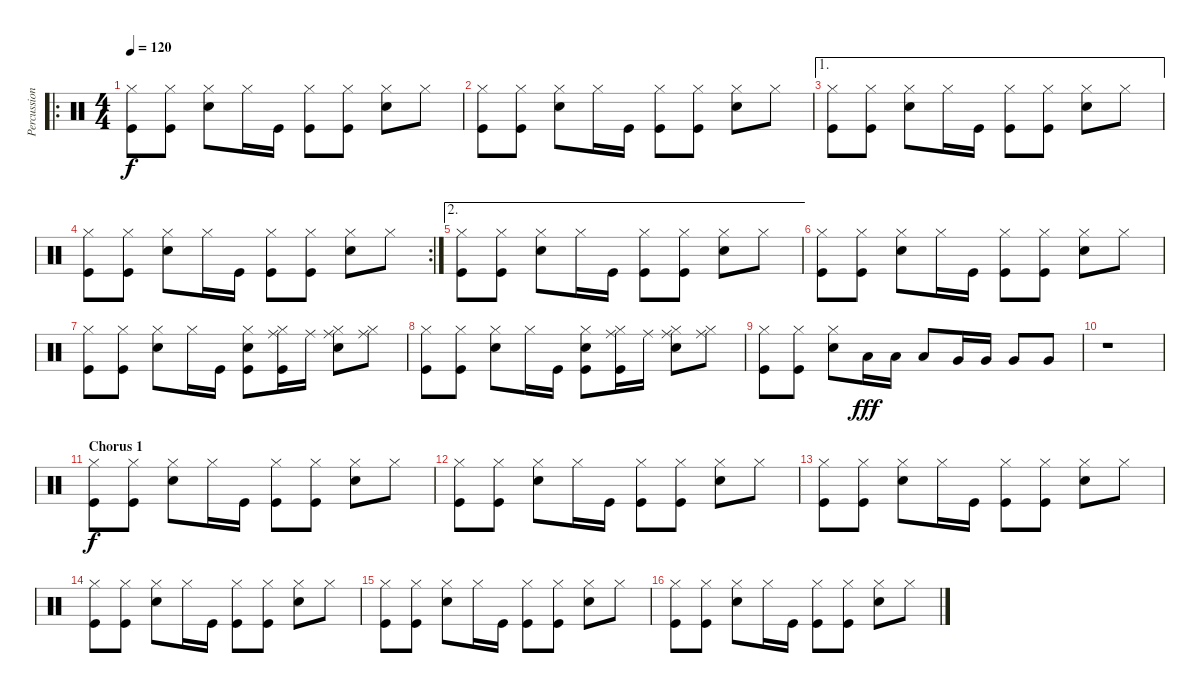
\track ("Percussion" "Percussion") {instrument percussion}
\staff {score}
\articulation defaults
\ro
\ts (4 4)
\tempo 120
\clef neutral
\ks c
("Hi-Hat (closed)" "Kick (hit)").8{dy f} ("Hi-Hat (closed)" "Kick (hit)").8 ("Hi-Hat (closed)" "Snare (hit) 2").8 "Hi-Hat (closed)".16 "Kick (hit)".16 ("Hi-Hat (closed)" "Kick (hit)").8 ("Hi-Hat (closed)" "Kick (hit)").8 ("Hi-Hat (closed)" "Snare (hit) 2").8 "Hi-Hat (closed)".8 |
("Hi-Hat (closed)" "Kick (hit)").8 ("Hi-Hat (closed)" "Kick (hit)").8 ("Hi-Hat (closed)" "Snare (hit) 2").8 "Hi-Hat (closed)".16 "Kick (hit)".16 ("Hi-Hat (closed)" "Kick (hit)").8 ("Hi-Hat (closed)" "Kick (hit)").8 ("Hi-Hat (closed)" "Snare (hit) 2").8 "Hi-Hat (closed)".8 |
\ae 1
("Hi-Hat (closed)" "Kick (hit)").8 ("Hi-Hat (closed)" "Kick (hit)").8 ("Hi-Hat (closed)" "Snare (hit) 2").8 "Hi-Hat (closed)".16 "Kick (hit)".16 ("Hi-Hat (closed)" "Kick (hit)").8 ("Hi-Hat (closed)" "Kick (hit)").8 ("Hi-Hat (closed)" "Snare (hit) 2").8 "Hi-Hat (closed)".8 |
\rc 2
("Hi-Hat (closed)" "Kick (hit)").8 ("Hi-Hat (closed)" "Kick (hit)").8 ("Hi-Hat (closed)" "Snare (hit) 2").8 "Hi-Hat (closed)".16 "Kick (hit)".16 ("Hi-Hat (closed)" "Kick (hit)").8 ("Hi-Hat (closed)" "Kick (hit)").8 ("Hi-Hat (closed)" "Snare (hit) 2").8 "Hi-Hat (closed)".8 |
\ae 2
("Hi-Hat (closed)" "Kick (hit)").8 ("Hi-Hat (closed)" "Kick (hit)").8 ("Hi-Hat (closed)" "Snare (hit) 2").8 "Hi-Hat (closed)".16 "Kick (hit)".16 ("Hi-Hat (closed)" "Kick (hit)").8 ("Hi-Hat (closed)" "Kick (hit)").8 ("Hi-Hat (closed)" "Snare (hit) 2").8 "Hi-Hat (closed)".8 |
("Hi-Hat (closed)" "Kick (hit)").8 ("Hi-Hat (closed)" "Kick (hit)").8 ("Hi-Hat (closed)" "Snare (hit) 2").8 "Hi-Hat (closed)".16 "Kick (hit)".16 ("Hi-Hat (closed)" "Kick (hit)").8 ("Hi-Hat (closed)" "Kick (hit)").8 ("Hi-Hat (closed)" "Snare (hit) 2").8 "Hi-Hat (closed)".8 |
("Hi-Hat (closed)" "Kick (hit)").8 ("Hi-Hat (closed)" "Kick (hit)").8 ("Hi-Hat (closed)" "Snare (hit) 2").8 "Hi-Hat (closed)".16 "Kick (hit)".16 ("Hi-Hat (closed)" "Hand Clap (hit)" "Kick (hit)").8 ("Hi-Hat (closed)" "Ride (middle)" "Kick (hit)").16 "Ride (middle)".16 ("Hi-Hat (closed)" "Ride (middle)" "Snare (hit) 2").8 ("Hi-Hat (closed)" "Ride (middle)").8 |
("Hi-Hat (closed)" "Kick (hit)").8 ("Hi-Hat (closed)" "Kick (hit)").8 ("Hi-Hat (closed)" "Snare (hit) 2").8 "Hi-Hat (closed)".16 "Kick (hit)".16 ("Hi-Hat (closed)" "Hand Clap (hit)" "Kick (hit)").8 ("Hi-Hat (closed)" "Ride (middle)" "Kick (hit)").16 "Ride (middle)".16 ("Hi-Hat (closed)" "Ride (middle)" "Snare (hit) 2").8 ("Hi-Hat (closed)" "Ride (middle)").8 |
("Hi-Hat (closed)" "Kick (hit)").8 ("Hi-Hat (closed)" "Kick (hit)").8 ("Hi-Hat (closed)" "Snare (hit) 2").8 "Low Tom (hit)".16{dy fff} "Low Tom (hit)".16 "Low Tom (hit)".8 "Very Low Tom (hit)".16 "Very Low Tom (hit)".16 "Very Low Tom (hit)".8 "Very Low Tom (hit)".8 |
r.1 |
\section ("" "Chorus 1")
("Hi-Hat (closed)" "Kick (hit)").8{dy f} ("Hi-Hat (closed)" "Kick (hit)").8 ("Hi-Hat (closed)" "Snare (hit) 2").8 "Hi-Hat (closed)".16 "Kick (hit)".16 ("Hi-Hat (closed)" "Kick (hit)").8 ("Hi-Hat (closed)" "Kick (hit)").8 ("Hi-Hat (closed)" "Snare (hit) 2").8 "Hi-Hat (closed)".8 |
("Hi-Hat (closed)" "Kick (hit)").8 ("Hi-Hat (closed)" "Kick (hit)").8 ("Hi-Hat (closed)" "Snare (hit) 2").8 "Hi-Hat (closed)".16 "Kick (hit)".16 ("Hi-Hat (closed)" "Kick (hit)").8 ("Hi-Hat (closed)" "Kick (hit)").8 ("Hi-Hat (closed)" "Snare (hit) 2").8 "Hi-Hat (closed)".8 |
("Hi-Hat (closed)" "Kick (hit)").8 ("Hi-Hat (closed)" "Kick (hit)").8 ("Hi-Hat (closed)" "Snare (hit) 2").8 "Hi-Hat (closed)".16 "Kick (hit)".16 ("Hi-Hat (closed)" "Kick (hit)").8 ("Hi-Hat (closed)" "Kick (hit)").8 ("Hi-Hat (closed)" "Snare (hit) 2").8 "Hi-Hat (closed)".8 |
("Hi-Hat (closed)" "Kick (hit)").8 ("Hi-Hat (closed)" "Kick (hit)").8 ("Hi-Hat (closed)" "Snare (hit) 2").8 "Hi-Hat (closed)".16 "Kick (hit)".16 ("Hi-Hat (closed)" "Kick (hit)").8 ("Hi-Hat (closed)" "Kick (hit)").8 ("Hi-Hat (closed)" "Snare (hit) 2").8 "Hi-Hat (closed)".8 |
("Hi-Hat (closed)" "Kick (hit)").8 ("Hi-Hat (closed)" "Kick (hit)").8 ("Hi-Hat (closed)" "Snare (hit) 2").8 "Hi-Hat (closed)".16 "Kick (hit)".16 ("Hi-Hat (closed)" "Kick (hit)").8 ("Hi-Hat (closed)" "Kick (hit)").8 ("Hi-Hat (closed)" "Snare (hit) 2").8 "Hi-Hat (closed)".8 |
("Hi-Hat (closed)" "Kick (hit)").8 ("Hi-Hat (closed)" "Kick (hit)").8 ("Hi-Hat (closed)" "Snare (hit) 2").8 "Hi-Hat (closed)".16 "Kick (hit)".16 ("Hi-Hat (closed)" "Kick (hit)").8 ("Hi-Hat (closed)" "Kick (hit)").8 ("Hi-Hat (closed)" "Snare (hit) 2").8 "Hi-Hat (closed)".8
